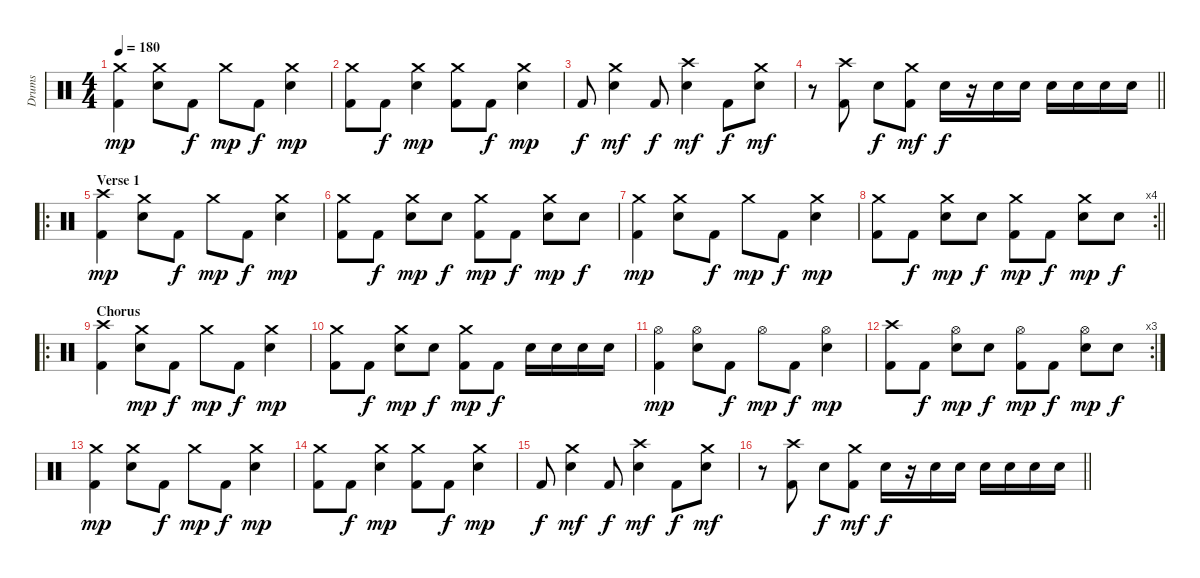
\track ("Drums" "Drums") {instrument percussion}
\staff {score}
\articulation defaults
\ts (4 4)
\tempo 180
\clef neutral
\ks c
("Crash medium (hit)" "Kick (hit) 2").4{dy mp} ("Crash medium (hit)" "Snare (hit) 2").8 "Kick (hit) 2".8{dy f} "Crash medium (hit)".8{dy mp} "Kick (hit) 2".8{dy f} ("Crash medium (hit)" "Snare (hit) 2").4{dy mp} |
("Crash medium (hit)" "Kick (hit) 2").8 "Kick (hit) 2".8{dy f} ("Crash medium (hit)" "Snare (hit) 2").4{dy mp} ("Crash medium (hit)" "Kick (hit) 2").8 "Kick (hit) 2".8{dy f} ("Crash medium (hit)" "Snare (hit) 2").4{dy mp} |
"Kick (hit) 2".8{dy f} ("Crash medium (hit)" "Snare (hit) 2").4{dy mf} "Kick (hit) 2".8{dy f} ("Crash high (hit)" "Snare (hit) 2").4{dy mf} "Kick (hit) 2".8{dy f} ("Crash medium (hit)" "Snare (hit) 2").8{dy mf} |
\barLineRight lightlight
r.8 ("Crash high (hit)" "Kick (hit) 2").8 "Snare (hit) 2".8{dy f} ("Crash medium (hit)" "Kick (hit) 2").8{dy mf} "Snare (hit) 2".16{dy f} r.16 "Snare (hit) 2".16 "Snare (hit) 2".16 "Snare (hit) 2".16 "Snare (hit) 2".16 "Snare (hit) 2".16 "Snare (hit) 2".16 |
\ro
\section ("" "Verse 1")
("Crash high (hit)" "Kick (hit) 2").4{dy mp} ("Crash medium (hit)" "Snare (hit) 2").8 "Kick (hit) 2".8{dy f} "Crash medium (hit)".8{dy mp} "Kick (hit) 2".8{dy f} ("Crash medium (hit)" "Snare (hit) 2").4{dy mp} |
("Crash medium (hit)" "Kick (hit) 2").8 "Kick (hit) 2".8{dy f} ("Crash medium (hit)" "Snare (hit) 2").8{dy mp} "Snare (hit) 2".8{dy f} ("Crash medium (hit)" "Kick (hit) 2").8{dy mp} "Kick (hit) 2".8{dy f} ("Crash medium (hit)" "Snare (hit) 2").8{dy mp} "Snare (hit) 2".8{dy f} |
("Crash medium (hit)" "Kick (hit) 2").4{dy mp} ("Crash medium (hit)" "Snare (hit) 2").8 "Kick (hit) 2".8{dy f} "Crash medium (hit)".8{dy mp} "Kick (hit) 2".8{dy f} ("Crash medium (hit)" "Snare (hit) 2").4{dy mp} |
\rc 4
\barLineRight lightlight
("Crash medium (hit)" "Kick (hit) 2").8 "Kick (hit) 2".8{dy f} ("Crash medium (hit)" "Snare (hit) 2").8{dy mp} "Snare (hit) 2".8{dy f} ("Crash medium (hit)" "Kick (hit) 2").8{dy mp} "Kick (hit) 2".8{dy f} ("Crash medium (hit)" "Snare (hit) 2").8{dy mp} "Snare (hit) 2".8{dy f} |
\ro
\section ("" "Chorus")
("Crash high (hit)" "Kick (hit) 2").4 ("Crash medium (hit)" "Snare (hit) 2").8{dy mp} "Kick (hit) 2".8{dy f} "Crash medium (hit)".8{dy mp} "Kick (hit) 2".8{dy f} ("Crash medium (hit)" "Snare (hit) 2").4{dy mp} |
("Crash medium (hit)" "Kick (hit) 2").8 "Kick (hit) 2".8{dy f} ("Crash medium (hit)" "Snare (hit) 2").8{dy mp} "Snare (hit) 2".8{dy f} ("Crash medium (hit)" "Kick (hit) 2").8{dy mp} "Kick (hit) 2".8{dy f} "Snare (hit) 2".16 "Snare (hit) 2".16 "Snare (hit) 2".16 "Snare (hit) 2".16 |
("Hi-Hat (open)" "Kick (hit) 2").4{dy mp} ("Hi-Hat (open)" "Snare (hit) 2").8 "Kick (hit) 2".8{dy f} "Hi-Hat (open)".8{dy mp} "Kick (hit) 2".8{dy f} ("Hi-Hat (open)" "Snare (hit) 2").4{dy mp} |
\rc 3
("Crash high (hit)" "Kick (hit) 2").8 "Kick (hit) 2".8{dy f} ("Hi-Hat (open)" "Snare (hit) 2").8{dy mp} "Snare (hit) 2".8{dy f} ("Hi-Hat (open)" "Kick (hit) 2").8{dy mp} "Kick (hit) 2".8{dy f} ("Hi-Hat (open)" "Snare (hit) 2").8{dy mp} "Snare (hit) 2".8{dy f} |
("Crash medium (hit)" "Kick (hit) 2").4{dy mp} ("Crash medium (hit)" "Snare (hit) 2").8 "Kick (hit) 2".8{dy f} "Crash medium (hit)".8{dy mp} "Kick (hit) 2".8{dy f} ("Crash medium (hit)" "Snare (hit) 2").4{dy mp} |
("Crash medium (hit)" "Kick (hit) 2").8 "Kick (hit) 2".8{dy f} ("Crash medium (hit)" "Snare (hit) 2").4{dy mp} ("Crash medium (hit)" "Kick (hit) 2").8 "Kick (hit) 2".8{dy f} ("Crash medium (hit)" "Snare (hit) 2").4{dy mp} |
"Kick (hit) 2".8{dy f} ("Crash medium (hit)" "Snare (hit) 2").4{dy mf} "Kick (hit) 2".8{dy f} ("Crash high (hit)" "Snare (hit) 2").4{dy mf} "Kick (hit) 2".8{dy f} ("Crash medium (hit)" "Snare (hit) 2").8{dy mf} |
\barLineRight lightlight
r.8 ("Crash high (hit)" "Kick (hit) 2").8 "Snare (hit) 2".8{dy f} ("Crash medium (hit)" "Kick (hit) 2").8{dy mf} "Snare (hit) 2".16{dy f} r.16 "Snare (hit) 2".16 "Snare (hit) 2".16 "Snare (hit) 2".16 "Snare (hit) 2".16 "Snare (hit) 2".16 "Snare (hit) 2".16
